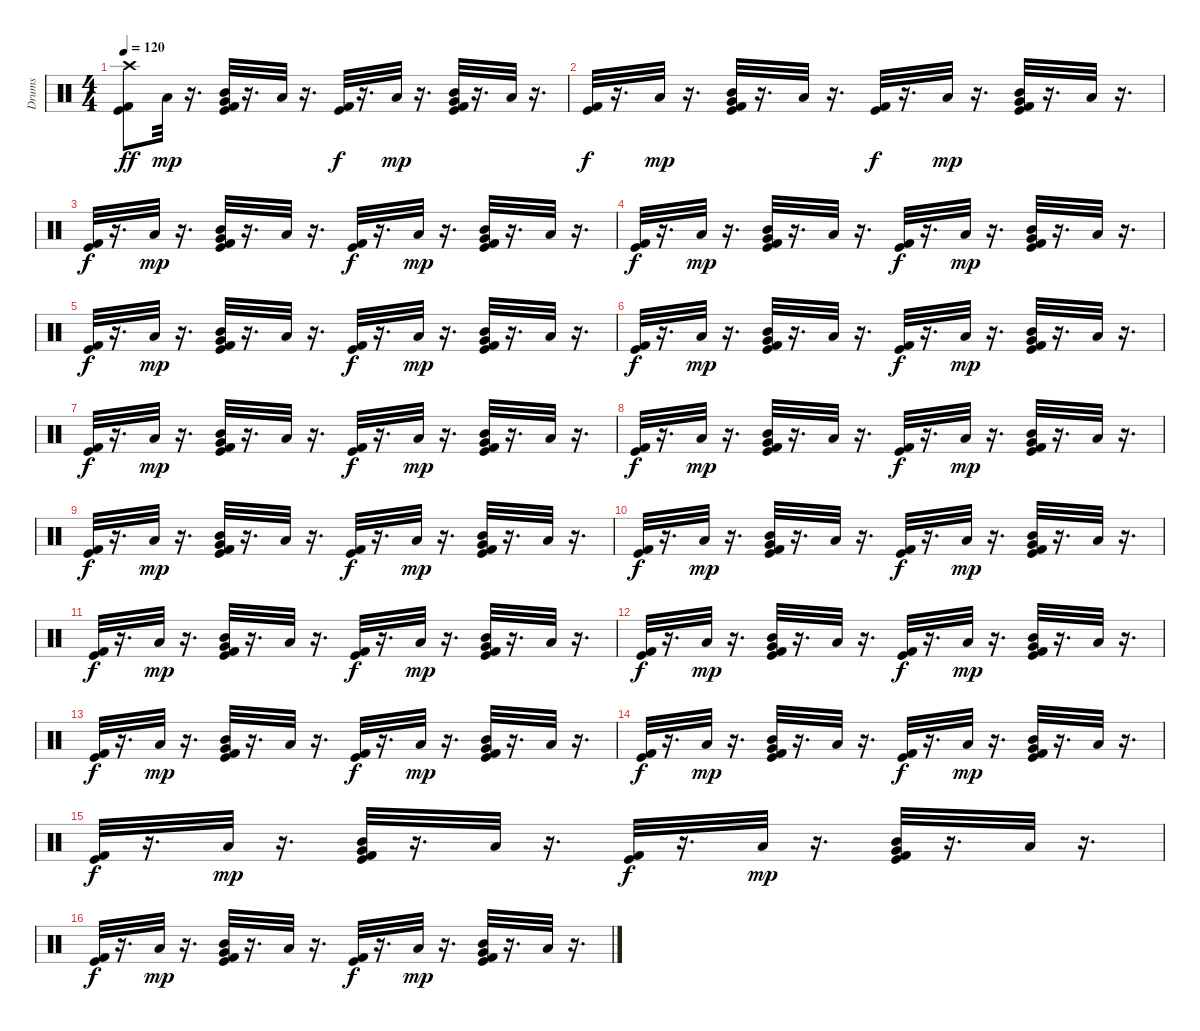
\track ("Drums" "Drums") {instrument percussion}
\staff {score}
\articulation defaults
\ts (4 4)
\tempo 120
\clef neutral
\ks c
("Crash high (hit)" "Kick (hit)" "Kick (hit) 2").8{dy ff} "Low Tom (hit)".32{dy mp} r.16{d} ("Mid Tom (hit)" "Very Low Tom (hit)" "Kick (hit) 2" "Kick (hit)").32 r.16{d} "Low Tom (hit)".32 r.16{d} ("Kick (hit)" "Kick (hit) 2").32{dy f} r.16{d} "Low Tom (hit)".32{dy mp} r.16{d} ("Mid Tom (hit)" "Very Low Tom (hit)" "Kick (hit)" "Kick (hit) 2").32 r.16{d} "Low Tom (hit)".32 r.16{d} |
("Kick (hit)" "Kick (hit) 2").32{dy f} r.16{d} "Low Tom (hit)".32{dy mp} r.16{d} ("Mid Tom (hit)" "Very Low Tom (hit)" "Kick (hit)" "Kick (hit) 2").32 r.16{d} "Low Tom (hit)".32 r.16{d} ("Kick (hit) 2" "Kick (hit)").32{dy f} r.16{d} "Low Tom (hit)".32{dy mp} r.16{d} ("Mid Tom (hit)" "Very Low Tom (hit)" "Kick (hit)" "Kick (hit) 2").32 r.16{d} "Low Tom (hit)".32 r.16{d} |
("Kick (hit) 2" "Kick (hit)").32{dy f} r.16{d} "Low Tom (hit)".32{dy mp} r.16{d} ("Mid Tom (hit)" "Very Low Tom (hit)" "Kick (hit)" "Kick (hit) 2").32 r.16{d} "Low Tom (hit)".32 r.16{d} ("Kick (hit)" "Kick (hit) 2").32{dy f} r.16{d} "Low Tom (hit)".32{dy mp} r.16{d} ("Mid Tom (hit)" "Very Low Tom (hit)" "Kick (hit) 2" "Kick (hit)").32 r.16{d} "Low Tom (hit)".32 r.16{d} |
("Kick (hit)" "Kick (hit) 2").32{dy f} r.16{d} "Low Tom (hit)".32{dy mp} r.16{d} ("Mid Tom (hit)" "Kick (hit)" "Kick (hit) 2" "Very Low Tom (hit)").32 r.16{d} "Low Tom (hit)".32 r.16{d} ("Kick (hit) 2" "Kick (hit)").32{dy f} r.16{d} "Low Tom (hit)".32{dy mp} r.16{d} ("Mid Tom (hit)" "Very Low Tom (hit)" "Kick (hit)" "Kick (hit) 2").32 r.16{d} "Low Tom (hit)".32 r.16{d} |
("Kick (hit)" "Kick (hit) 2").32{dy f} r.16{d} "Low Tom (hit)".32{dy mp} r.16{d} ("Mid Tom (hit)" "Very Low Tom (hit)" "Kick (hit) 2" "Kick (hit)").32 r.16{d} "Low Tom (hit)".32 r.16{d} ("Kick (hit) 2" "Kick (hit)").32{dy f} r.16{d} "Low Tom (hit)".32{dy mp} r.16{d} ("Mid Tom (hit)" "Very Low Tom (hit)" "Kick (hit)" "Kick (hit) 2").32 r.16{d} "Low Tom (hit)".32 r.16{d} |
("Kick (hit)" "Kick (hit) 2").32{dy f} r.16{d} "Low Tom (hit)".32{dy mp} r.16{d} ("Mid Tom (hit)" "Very Low Tom (hit)" "Kick (hit)" "Kick (hit) 2").32 r.16{d} "Low Tom (hit)".32 r.16{d} ("Kick (hit) 2" "Kick (hit)").32{dy f} r.16{d} "Low Tom (hit)".32{dy mp} r.16{d} ("Mid Tom (hit)" "Very Low Tom (hit)" "Kick (hit) 2" "Kick (hit)").32 r.16{d} "Low Tom (hit)".32 r.16{d} |
("Kick (hit)" "Kick (hit) 2").32{dy f} r.16{d} "Low Tom (hit)".32{dy mp} r.16{d} ("Mid Tom (hit)" "Very Low Tom (hit)" "Kick (hit) 2" "Kick (hit)").32 r.16{d} "Low Tom (hit)".32 r.16{d} ("Kick (hit)" "Kick (hit) 2").32{dy f} r.16{d} "Low Tom (hit)".32{dy mp} r.16{d} ("Mid Tom (hit)" "Very Low Tom (hit)" "Kick (hit)" "Kick (hit) 2").32 r.16{d} "Low Tom (hit)".32 r.16{d} |
("Kick (hit)" "Kick (hit) 2").32{dy f} r.16{d} "Low Tom (hit)".32{dy mp} r.16{d} ("Mid Tom (hit)" "Very Low Tom (hit)" "Kick (hit)" "Kick (hit) 2").32 r.16{d} "Low Tom (hit)".32 r.16{d} ("Kick (hit) 2" "Kick (hit)").32{dy f} r.16{d} "Low Tom (hit)".32{dy mp} r.16{d} ("Mid Tom (hit)" "Very Low Tom (hit)" "Kick (hit)" "Kick (hit) 2").32 r.16{d} "Low Tom (hit)".32 r.16{d} |
("Kick (hit) 2" "Kick (hit)").32{dy f} r.16{d} "Low Tom (hit)".32{dy mp} r.16{d} ("Mid Tom (hit)" "Very Low Tom (hit)" "Kick (hit)" "Kick (hit) 2").32 r.16{d} "Low Tom (hit)".32 r.16{d} ("Kick (hit)" "Kick (hit) 2").32{dy f} r.16{d} "Low Tom (hit)".32{dy mp} r.16{d} ("Mid Tom (hit)" "Very Low Tom (hit)" "Kick (hit) 2" "Kick (hit)").32 r.16{d} "Low Tom (hit)".32 r.16{d} |
("Kick (hit)" "Kick (hit) 2").32{dy f} r.16{d} "Low Tom (hit)".32{dy mp} r.16{d} ("Mid Tom (hit)" "Kick (hit)" "Kick (hit) 2" "Very Low Tom (hit)").32 r.16{d} "Low Tom (hit)".32 r.16{d} ("Kick (hit) 2" "Kick (hit)").32{dy f} r.16{d} "Low Tom (hit)".32{dy mp} r.16{d} ("Mid Tom (hit)" "Very Low Tom (hit)" "Kick (hit)" "Kick (hit) 2").32 r.16{d} "Low Tom (hit)".32 r.16{d} |
("Kick (hit)" "Kick (hit) 2").32{dy f} r.16{d} "Low Tom (hit)".32{dy mp} r.16{d} ("Mid Tom (hit)" "Very Low Tom (hit)" "Kick (hit) 2" "Kick (hit)").32 r.16{d} "Low Tom (hit)".32 r.16{d} ("Kick (hit) 2" "Kick (hit)").32{dy f} r.16{d} "Low Tom (hit)".32{dy mp} r.16{d} ("Mid Tom (hit)" "Very Low Tom (hit)" "Kick (hit)" "Kick (hit) 2").32 r.16{d} "Low Tom (hit)".32 r.16{d} |
("Kick (hit)" "Kick (hit) 2").32{dy f} r.16{d} "Low Tom (hit)".32{dy mp} r.16{d} ("Mid Tom (hit)" "Very Low Tom (hit)" "Kick (hit)" "Kick (hit) 2").32 r.16{d} "Low Tom (hit)".32 r.16{d} ("Kick (hit) 2" "Kick (hit)").32{dy f} r.16{d} "Low Tom (hit)".32{dy mp} r.16{d} ("Mid Tom (hit)" "Very Low Tom (hit)" "Kick (hit) 2" "Kick (hit)").32 r.16{d} "Low Tom (hit)".32 r.16{d} |
("Kick (hit)" "Kick (hit) 2").32{dy f} r.16{d} "Low Tom (hit)".32{dy mp} r.16{d} ("Mid Tom (hit)" "Very Low Tom (hit)" "Kick (hit) 2" "Kick (hit)").32 r.16{d} "Low Tom (hit)".32 r.16{d} ("Kick (hit)" "Kick (hit) 2").32{dy f} r.16{d} "Low Tom (hit)".32{dy mp} r.16{d} ("Mid Tom (hit)" "Very Low Tom (hit)" "Kick (hit)" "Kick (hit) 2").32 r.16{d} "Low Tom (hit)".32 r.16{d} |
("Kick (hit)" "Kick (hit) 2").32{dy f} r.16{d} "Low Tom (hit)".32{dy mp} r.16{d} ("Mid Tom (hit)" "Very Low Tom (hit)" "Kick (hit)" "Kick (hit) 2").32 r.16{d} "Low Tom (hit)".32 r.16{d} ("Kick (hit) 2" "Kick (hit)").32{dy f} r.16{d} "Low Tom (hit)".32{dy mp} r.16{d} ("Mid Tom (hit)" "Very Low Tom (hit)" "Kick (hit)" "Kick (hit) 2").32 r.16{d} "Low Tom (hit)".32 r.16{d} |
("Kick (hit) 2" "Kick (hit)").32{dy f} r.16{d} "Low Tom (hit)".32{dy mp} r.16{d} ("Mid Tom (hit)" "Very Low Tom (hit)" "Kick (hit)" "Kick (hit) 2").32 r.16{d} "Low Tom (hit)".32 r.16{d} ("Kick (hit)" "Kick (hit) 2").32{dy f} r.16{d} "Low Tom (hit)".32{dy mp} r.16{d} ("Mid Tom (hit)" "Very Low Tom (hit)" "Kick (hit) 2" "Kick (hit)").32 r.16{d} "Low Tom (hit)".32 r.16{d} |
("Kick (hit)" "Kick (hit) 2").32{dy f} r.16{d} "Low Tom (hit)".32{dy mp} r.16{d} ("Mid Tom (hit)" "Kick (hit)" "Kick (hit) 2" "Very Low Tom (hit)").32 r.16{d} "Low Tom (hit)".32 r.16{d} ("Kick (hit) 2" "Kick (hit)").32{dy f} r.16{d} "Low Tom (hit)".32{dy mp} r.16{d} ("Mid Tom (hit)" "Very Low Tom (hit)" "Kick (hit)" "Kick (hit) 2").32 r.16{d} "Low Tom (hit)".32 r.16{d}
